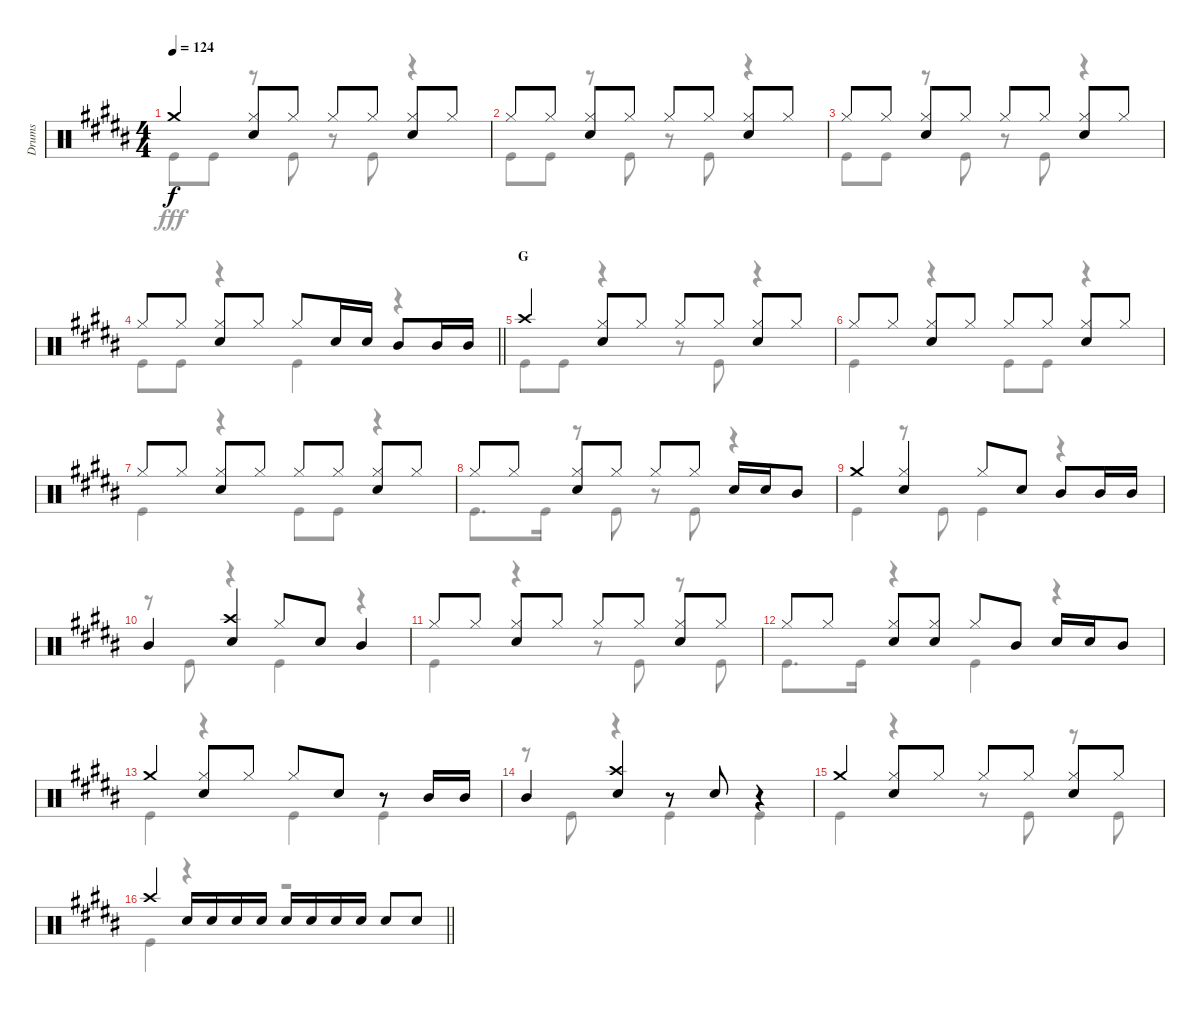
\track ("Drums" "Drums") {instrument percussion}
\staff {score}
\articulation defaults
\voice
\ts (4 4)
\tempo 124
\clef neutral
\ks b "Crash medium (hit)".4{dy f}
("Hi-Hat (closed)" "Snare (hit) 2").8 "Hi-Hat (closed)".8 "Hi-Hat (closed)".8 "Hi-Hat (closed)".8 ("Hi-Hat (closed)" "Snare (hit) 2").8 "Hi-Hat (closed)".8 |
"Hi-Hat (closed)".8 "Hi-Hat (closed)".8 ("Hi-Hat (closed)" "Snare (hit) 2").8 "Hi-Hat (closed)".8 "Hi-Hat (closed)".8 "Hi-Hat (closed)".8 ("Hi-Hat (closed)" "Snare (hit) 2").8 "Hi-Hat (closed)".8 |
"Hi-Hat (closed)".8 "Hi-Hat (closed)".8 ("Hi-Hat (closed)" "Snare (hit) 2").8 "Hi-Hat (closed)".8 "Hi-Hat (closed)".8 "Hi-Hat (closed)".8 ("Hi-Hat (closed)" "Snare (hit) 2").8 "Hi-Hat (closed)".8 |
\barLineRight lightlight "Hi-Hat (closed)".8 "Hi-Hat (closed)".8
("Hi-Hat (closed)" "Snare (hit) 2").8 "Hi-Hat (closed)".8 "Hi-Hat (closed)".8 "Snare (hit) 2".16 "Snare (hit) 2".16 "Mid Tom (hit)".8 "Mid Tom (hit)".16 "Mid Tom (hit)".16 |
\section ("" "G")
"Crash high (hit)".4 ("Hi-Hat (closed)" "Snare (hit) 2").8 "Hi-Hat (closed)".8 "Hi-Hat (closed)".8 "Hi-Hat (closed)".8 ("Hi-Hat (closed)" "Snare (hit) 2").8 "Hi-Hat (closed)".8 |
"Hi-Hat (closed)".8 "Hi-Hat (closed)".8 ("Hi-Hat (closed)" "Snare (hit) 2").8 "Hi-Hat (closed)".8 "Hi-Hat (closed)".8 "Hi-Hat (closed)".8 ("Hi-Hat (closed)" "Snare (hit) 2").8 "Hi-Hat (closed)".8 |
"Hi-Hat (closed)".8 "Hi-Hat (closed)".8 ("Hi-Hat (closed)" "Snare (hit) 2").8 "Hi-Hat (closed)".8 "Hi-Hat (closed)".8 "Hi-Hat (closed)".8 ("Hi-Hat (closed)" "Snare (hit) 2").8 "Hi-Hat (closed)".8 |
"Hi-Hat (closed)".8 "Hi-Hat (closed)".8 ("Hi-Hat (closed)" "Snare (hit) 2").8 "Hi-Hat (closed)".8 "Hi-Hat (closed)".8 "Hi-Hat (closed)".8 "Snare (hit) 2".16 "Snare (hit) 2".16 "Mid Tom (hit)".8 |
"Crash medium (hit)".4 ("Hi-Hat (closed)" "Snare (hit) 2").4 "Hi-Hat (closed)".8 "Snare (hit) 2".8 "Mid Tom (hit)".8 "Mid Tom (hit)".16 "Mid Tom (hit)".16 |
"Mid Tom (hit)".4 ("Crash high (hit)" "Snare (hit) 2").4 "Hi-Hat (closed)".8 "Snare (hit) 2".8 "Mid Tom (hit)".4 |
"Hi-Hat (closed)".8 "Hi-Hat (closed)".8 ("Hi-Hat (closed)" "Snare (hit) 2").8 "Hi-Hat (closed)".8 "Hi-Hat (closed)".8 "Hi-Hat (closed)".8 ("Hi-Hat (closed)" "Snare (hit) 2").8 "Hi-Hat (closed)".8 |
"Hi-Hat (closed)".8 "Hi-Hat (closed)".8 ("Hi-Hat (closed)" "Snare (hit) 2").8 ("Hi-Hat (closed)" "Snare (hit) 2").8 "Hi-Hat (closed)".8 "Mid Tom (hit)".8 "Snare (hit) 2".16 "Snare (hit) 2".16 "Mid Tom (hit)".8 |
"Crash medium (hit)".4 ("Hi-Hat (closed)" "Snare (hit) 2").8 "Hi-Hat (closed)".8 "Hi-Hat (closed)".8 "Snare (hit) 2".8 r.8 "Mid Tom (hit)".16 "Mid Tom (hit)".16 |
"Mid Tom (hit)".4 ("Crash high (hit)" "Snare (hit) 2").4 r.8 "Snare (hit) 2".8 r.4 |
"Crash medium (hit)".4 ("Hi-Hat (closed)" "Snare (hit) 2").8 "Hi-Hat (closed)".8 "Hi-Hat (closed)".8 "Hi-Hat (closed)".8 ("Hi-Hat (closed)" "Snare (hit) 2").8 "Hi-Hat (closed)".8 |
\barLineRight lightlight "Crash high (hit)".4 "Snare (hit) 2".16 "Snare (hit) 2".16 "Snare (hit) 2".16 "Snare (hit) 2".16 "Snare (hit) 2".16 "Snare (hit) 2".16 "Snare (hit) 2".16 "Snare (hit) 2".16 "Snare (hit) 2".8 "Snare (hit) 2".8
\voice
\clef neutral
\ottava regular
\simile none
\ks b "Kick (hit)".8{dy fff} "Kick (hit)".8
r.8 "Kick (hit)".8 r.8 "Kick (hit)".8 r.4 |
"Kick (hit)".8 "Kick (hit)".8 r.8 "Kick (hit)".8 r.8 "Kick (hit)".8 r.4 |
"Kick (hit)".8 "Kick (hit)".8 r.8 "Kick (hit)".8 r.8 "Kick (hit)".8 r.4 |
\barLineRight lightlight "Kick (hit)".8 "Kick (hit)".8
r.4 "Kick (hit)".4 r.4 |
"Kick (hit)".8 "Kick (hit)".8 r.4 r.8 "Kick (hit)".8 r.4 |
"Kick (hit)".4 r.4 "Kick (hit)".8 "Kick (hit)".8 r.4 |
"Kick (hit)".4 r.4 "Kick (hit)".8 "Kick (hit)".8 r.4 |
"Kick (hit)".8{d} "Kick (hit)".16 r.8 "Kick (hit)".8 r.8 "Kick (hit)".8 r.4 |
"Kick (hit)".4 r.8 "Kick (hit)".8 "Kick (hit)".4 r.4 |
r.8 "Kick (hit)".8 r.4 "Kick (hit)".4 r.4 |
"Kick (hit)".4 r.4 r.8 "Kick (hit)".8 r.8 "Kick (hit)".8 |
"Kick (hit)".8{d} "Kick (hit)".16 r.4 "Kick (hit)".4 r.4 |
"Kick (hit)".4 r.4 "Kick (hit)".4 "Kick (hit)".4 |
r.8 "Kick (hit)".8 r.4 "Kick (hit)".4 "Kick (hit)".4 |
"Kick (hit)".4 r.4 r.8 "Kick (hit)".8 r.8 "Kick (hit)".8 |
\barLineRight lightlight "Kick (hit)".4
r.4 r.2
